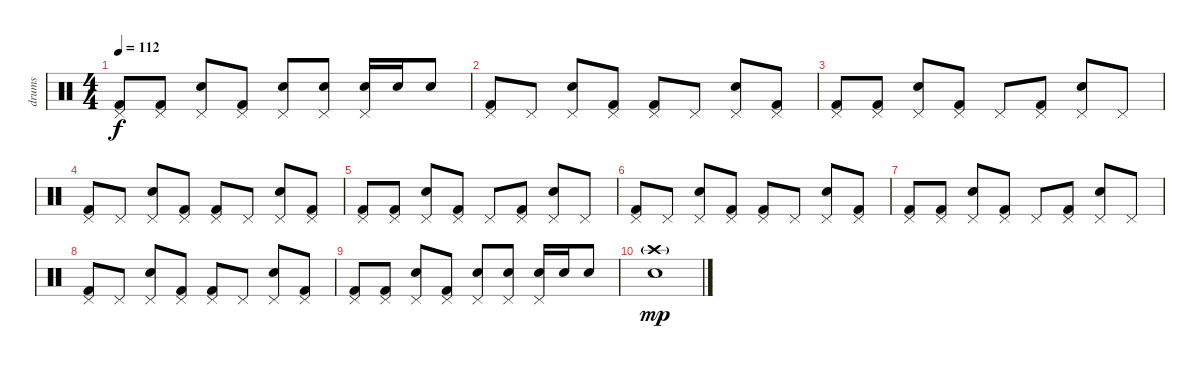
\track ("drums" "drums") {instrument percussion}
\staff {score}
\articulation defaults
\ts (4 4)
\tempo 112
\clef neutral
\ks c
("Kick (hit) 2" "Pedal Hi-Hat (hit)").8{dy f} ("Kick (hit) 2" "Pedal Hi-Hat (hit)").8 ("Snare (hit) 2" "Pedal Hi-Hat (hit)").8 ("Kick (hit) 2" "Pedal Hi-Hat (hit)").8 ("Snare (hit) 2" "Pedal Hi-Hat (hit)").8 ("Snare (hit) 2" "Pedal Hi-Hat (hit)").8 ("Snare (hit) 2" "Pedal Hi-Hat (hit)").16 "Snare (hit) 2".16 "Snare (hit) 2".8 |
("Kick (hit) 2" "Pedal Hi-Hat (hit)").8 "Pedal Hi-Hat (hit)".8 ("Snare (hit) 2" "Pedal Hi-Hat (hit)").8 ("Kick (hit) 2" "Pedal Hi-Hat (hit)").8 ("Kick (hit) 2" "Pedal Hi-Hat (hit)").8 "Pedal Hi-Hat (hit)".8 ("Snare (hit) 2" "Pedal Hi-Hat (hit)").8 ("Kick (hit) 2" "Pedal Hi-Hat (hit)").8 |
("Kick (hit) 2" "Pedal Hi-Hat (hit)").8 ("Kick (hit) 2" "Pedal Hi-Hat (hit)").8 ("Snare (hit) 2" "Pedal Hi-Hat (hit)").8 ("Kick (hit) 2" "Pedal Hi-Hat (hit)").8 "Pedal Hi-Hat (hit)".8 ("Kick (hit) 2" "Pedal Hi-Hat (hit)").8 ("Snare (hit) 2" "Pedal Hi-Hat (hit)").8 "Pedal Hi-Hat (hit)".8 |
("Kick (hit) 2" "Pedal Hi-Hat (hit)").8 "Pedal Hi-Hat (hit)".8 ("Snare (hit) 2" "Pedal Hi-Hat (hit)").8 ("Kick (hit) 2" "Pedal Hi-Hat (hit)").8 ("Kick (hit) 2" "Pedal Hi-Hat (hit)").8 "Pedal Hi-Hat (hit)".8 ("Snare (hit) 2" "Pedal Hi-Hat (hit)").8 ("Kick (hit) 2" "Pedal Hi-Hat (hit)").8 |
("Kick (hit) 2" "Pedal Hi-Hat (hit)").8 ("Kick (hit) 2" "Pedal Hi-Hat (hit)").8 ("Snare (hit) 2" "Pedal Hi-Hat (hit)").8 ("Kick (hit) 2" "Pedal Hi-Hat (hit)").8 "Pedal Hi-Hat (hit)".8 ("Kick (hit) 2" "Pedal Hi-Hat (hit)").8 ("Snare (hit) 2" "Pedal Hi-Hat (hit)").8 "Pedal Hi-Hat (hit)".8 |
("Kick (hit) 2" "Pedal Hi-Hat (hit)").8 "Pedal Hi-Hat (hit)".8 ("Snare (hit) 2" "Pedal Hi-Hat (hit)").8 ("Kick (hit) 2" "Pedal Hi-Hat (hit)").8 ("Kick (hit) 2" "Pedal Hi-Hat (hit)").8 "Pedal Hi-Hat (hit)".8 ("Snare (hit) 2" "Pedal Hi-Hat (hit)").8 ("Kick (hit) 2" "Pedal Hi-Hat (hit)").8 |
("Kick (hit) 2" "Pedal Hi-Hat (hit)").8 ("Kick (hit) 2" "Pedal Hi-Hat (hit)").8 ("Snare (hit) 2" "Pedal Hi-Hat (hit)").8 ("Kick (hit) 2" "Pedal Hi-Hat (hit)").8 "Pedal Hi-Hat (hit)".8 ("Kick (hit) 2" "Pedal Hi-Hat (hit)").8 ("Snare (hit) 2" "Pedal Hi-Hat (hit)").8 "Pedal Hi-Hat (hit)".8 |
("Kick (hit) 2" "Pedal Hi-Hat (hit)").8 "Pedal Hi-Hat (hit)".8 ("Snare (hit) 2" "Pedal Hi-Hat (hit)").8 ("Kick (hit) 2" "Pedal Hi-Hat (hit)").8 ("Kick (hit) 2" "Pedal Hi-Hat (hit)").8 "Pedal Hi-Hat (hit)".8 ("Snare (hit) 2" "Pedal Hi-Hat (hit)").8 ("Kick (hit) 2" "Pedal Hi-Hat (hit)").8 |
("Kick (hit) 2" "Pedal Hi-Hat (hit)").8 ("Kick (hit) 2" "Pedal Hi-Hat (hit)").8 ("Snare (hit) 2" "Pedal Hi-Hat (hit)").8 ("Kick (hit) 2" "Pedal Hi-Hat (hit)").8 ("Snare (hit) 2" "Pedal Hi-Hat (hit)").8 ("Snare (hit) 2" "Pedal Hi-Hat (hit)").8 ("Snare (hit) 2" "Pedal Hi-Hat (hit)").16 "Snare (hit) 2".16 "Snare (hit) 2".8 |
("Snare (hit) 2" "Crash high (hit)"{g}).1{dy mp}
